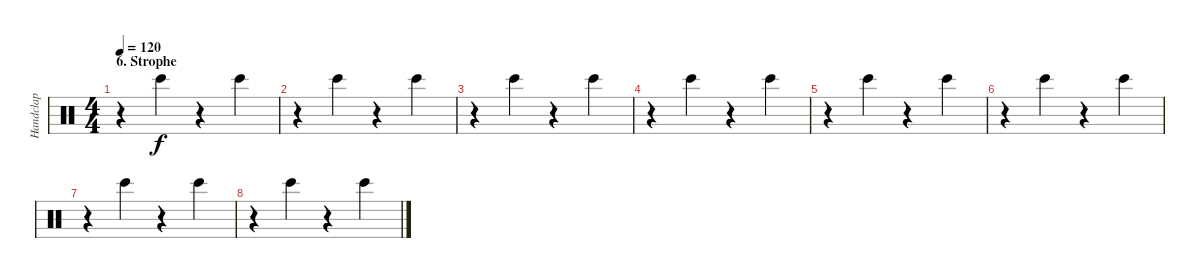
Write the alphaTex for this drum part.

\track ("Handclap" "Handclap") {instrument percussion}
\staff {score}
\articulation defaults
\ts (4 4)
\section ("" "6. Strophe")
\tempo 120
\clef neutral
\ks c
r.4{dy f} "Bongo High (hit)".4 r.4 "Bongo High (hit)".4 |
r.4 "Bongo High (hit)".4 r.4 "Bongo High (hit)".4 |
r.4 "Bongo High (hit)".4 r.4 "Bongo High (hit)".4 |
r.4 "Bongo High (hit)".4 r.4 "Bongo High (hit)".4 |
r.4 "Bongo High (hit)".4 r.4 "Bongo High (hit)".4 |
r.4 "Bongo High (hit)".4 r.4 "Bongo High (hit)".4 |
r.4 "Bongo High (hit)".4 r.4 "Bongo High (hit)".4 |
r.4 "Bongo High (hit)".4 r.4 "Bongo High (hit)".4
